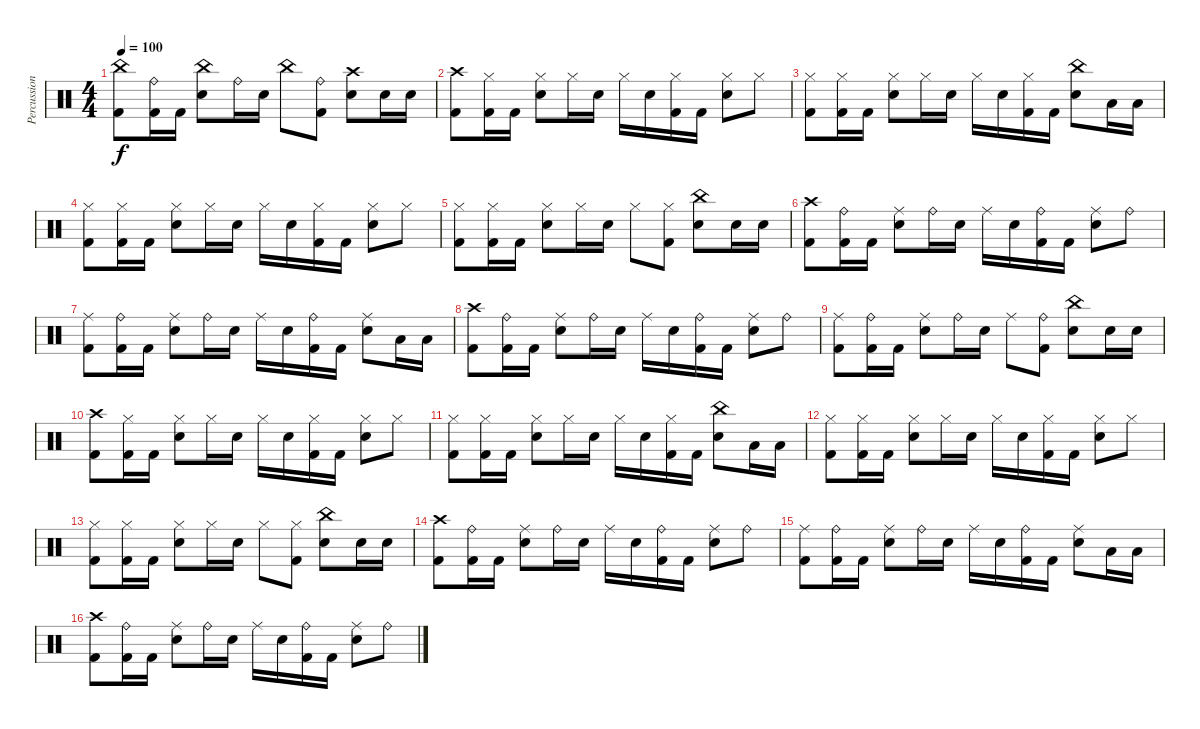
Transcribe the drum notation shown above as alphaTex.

\track ("Percussion" "Percussion") {instrument percussion}
\staff {score}
\articulation defaults
\ts (4 4)
\tempo 100
\clef neutral
\ks c
("China (hit)" "Kick (hit) 2").8{dy f} ("Ride (bell)" "Kick (hit) 2").16 "Kick (hit) 2".16 ("China (hit)" "Snare (hit) 2").8 "Ride (bell)".16 "Snare (hit) 2".16 "China (hit)".8 ("Ride (bell)" "Kick (hit) 2").8 ("Crash high (hit)" "Snare (hit) 2").8 "Snare (hit) 2".16 "Snare (hit) 2".16 |
("Crash high (hit)" "Kick (hit) 2").8 ("Hi-Hat (closed)" "Kick (hit) 2").16 "Kick (hit) 2".16 ("Hi-Hat (closed)" "Snare (hit) 2").8 "Hi-Hat (closed)".16 "Snare (hit) 2".16 "Hi-Hat (closed)".16 "Snare (hit) 2".16 ("Hi-Hat (closed)" "Kick (hit) 2").16 "Kick (hit) 2".16 ("Hi-Hat (closed)" "Snare (hit) 2").8 "Hi-Hat (closed)".8 |
("Hi-Hat (closed)" "Kick (hit) 2").8 ("Hi-Hat (closed)" "Kick (hit) 2").16 "Kick (hit) 2".16 ("Hi-Hat (closed)" "Snare (hit) 2").8 "Hi-Hat (closed)".16 "Snare (hit) 2".16 "Hi-Hat (closed)".16 "Snare (hit) 2".16 ("Hi-Hat (closed)" "Kick (hit) 2").16 "Kick (hit) 2".16 ("China (hit)" "Snare (hit) 2").8 "Low Floor Tom (hit)".16 "Low Floor Tom (hit)".16 |
("Hi-Hat (closed)" "Kick (hit) 2").8 ("Hi-Hat (closed)" "Kick (hit) 2").16 "Kick (hit) 2".16 ("Hi-Hat (closed)" "Snare (hit) 2").8 "Hi-Hat (closed)".16 "Snare (hit) 2".16 "Hi-Hat (closed)".16 "Snare (hit) 2".16 ("Hi-Hat (closed)" "Kick (hit) 2").16 "Kick (hit) 2".16 ("Hi-Hat (closed)" "Snare (hit) 2").8 "Hi-Hat (closed)".8 |
("Hi-Hat (closed)" "Kick (hit) 2").8 ("Hi-Hat (closed)" "Kick (hit) 2").16 "Kick (hit) 2".16 ("Hi-Hat (closed)" "Snare (hit) 2").8 "Hi-Hat (closed)".16 "Snare (hit) 2".16 "Hi-Hat (closed)".8 ("Hi-Hat (closed)" "Kick (hit) 2").8 ("China (hit)" "Snare (hit) 2").8 "Snare (hit) 2".16 "Snare (hit) 2".16 |
("Crash high (hit)" "Kick (hit) 2").8 ("Ride (bell)" "Kick (hit) 2").16 "Kick (hit) 2".16 ("Ride (middle)" "Snare (hit) 2").8 "Ride (bell)".16 "Snare (hit) 2".16 "Ride (middle)".16 "Snare (hit) 2".16 ("Ride (bell)" "Kick (hit) 2").16 "Kick (hit) 2".16 ("Ride (middle)" "Snare (hit) 2").8 "Ride (bell)".8 |
("Ride (middle)" "Kick (hit) 2").8 ("Ride (bell)" "Kick (hit) 2").16 "Kick (hit) 2".16 ("Ride (middle)" "Snare (hit) 2").8 "Ride (bell)".16 "Snare (hit) 2".16 "Ride (middle)".16 "Snare (hit) 2".16 ("Ride (bell)" "Kick (hit) 2").16 "Kick (hit) 2".16 ("Ride (middle)" "Snare (hit) 2").8 "Low Floor Tom (hit)".16 "Low Floor Tom (hit)".16 |
("Crash high (hit)" "Kick (hit) 2").8 ("Ride (bell)" "Kick (hit) 2").16 "Kick (hit) 2".16 ("Ride (middle)" "Snare (hit) 2").8 "Ride (bell)".16 "Snare (hit) 2".16 "Ride (middle)".16 "Snare (hit) 2".16 ("Ride (bell)" "Kick (hit) 2").16 "Kick (hit) 2".16 ("Ride (middle)" "Snare (hit) 2").8 "Ride (bell)".8 |
("Ride (middle)" "Kick (hit) 2").8 ("Ride (bell)" "Kick (hit) 2").16 "Kick (hit) 2".16 ("Ride (middle)" "Snare (hit) 2").8 "Ride (bell)".16 "Snare (hit) 2".16 "Ride (middle)".8 ("Ride (bell)" "Kick (hit) 2").8 ("China (hit)" "Snare (hit) 2").8 "Snare (hit) 2".16 "Snare (hit) 2".16 |
("Crash high (hit)" "Kick (hit) 2").8 ("Hi-Hat (closed)" "Kick (hit) 2").16 "Kick (hit) 2".16 ("Hi-Hat (closed)" "Snare (hit) 2").8 "Hi-Hat (closed)".16 "Snare (hit) 2".16 "Hi-Hat (closed)".16 "Snare (hit) 2".16 ("Hi-Hat (closed)" "Kick (hit) 2").16 "Kick (hit) 2".16 ("Hi-Hat (closed)" "Snare (hit) 2").8 "Hi-Hat (closed)".8 |
("Hi-Hat (closed)" "Kick (hit) 2").8 ("Hi-Hat (closed)" "Kick (hit) 2").16 "Kick (hit) 2".16 ("Hi-Hat (closed)" "Snare (hit) 2").8 "Hi-Hat (closed)".16 "Snare (hit) 2".16 "Hi-Hat (closed)".16 "Snare (hit) 2".16 ("Hi-Hat (closed)" "Kick (hit) 2").16 "Kick (hit) 2".16 ("China (hit)" "Snare (hit) 2").8 "Low Floor Tom (hit)".16 "Low Floor Tom (hit)".16 |
("Hi-Hat (closed)" "Kick (hit) 2").8 ("Hi-Hat (closed)" "Kick (hit) 2").16 "Kick (hit) 2".16 ("Hi-Hat (closed)" "Snare (hit) 2").8 "Hi-Hat (closed)".16 "Snare (hit) 2".16 "Hi-Hat (closed)".16 "Snare (hit) 2".16 ("Hi-Hat (closed)" "Kick (hit) 2").16 "Kick (hit) 2".16 ("Hi-Hat (closed)" "Snare (hit) 2").8 "Hi-Hat (closed)".8 |
("Hi-Hat (closed)" "Kick (hit) 2").8 ("Hi-Hat (closed)" "Kick (hit) 2").16 "Kick (hit) 2".16 ("Hi-Hat (closed)" "Snare (hit) 2").8 "Hi-Hat (closed)".16 "Snare (hit) 2".16 "Hi-Hat (closed)".8 ("Hi-Hat (closed)" "Kick (hit) 2").8 ("China (hit)" "Snare (hit) 2").8 "Snare (hit) 2".16 "Snare (hit) 2".16 |
("Crash high (hit)" "Kick (hit) 2").8 ("Ride (bell)" "Kick (hit) 2").16 "Kick (hit) 2".16 ("Ride (middle)" "Snare (hit) 2").8 "Ride (bell)".16 "Snare (hit) 2".16 "Ride (middle)".16 "Snare (hit) 2".16 ("Ride (bell)" "Kick (hit) 2").16 "Kick (hit) 2".16 ("Ride (middle)" "Snare (hit) 2").8 "Ride (bell)".8 |
("Ride (middle)" "Kick (hit) 2").8 ("Ride (bell)" "Kick (hit) 2").16 "Kick (hit) 2".16 ("Ride (middle)" "Snare (hit) 2").8 "Ride (bell)".16 "Snare (hit) 2".16 "Ride (middle)".16 "Snare (hit) 2".16 ("Ride (bell)" "Kick (hit) 2").16 "Kick (hit) 2".16 ("Ride (middle)" "Snare (hit) 2").8 "Low Floor Tom (hit)".16 "Low Floor Tom (hit)".16 |
("Crash high (hit)" "Kick (hit) 2").8 ("Ride (bell)" "Kick (hit) 2").16 "Kick (hit) 2".16 ("Ride (middle)" "Snare (hit) 2").8 "Ride (bell)".16 "Snare (hit) 2".16 "Ride (middle)".16 "Snare (hit) 2".16 ("Ride (bell)" "Kick (hit) 2").16 "Kick (hit) 2".16 ("Ride (middle)" "Snare (hit) 2").8 "Ride (bell)".8
